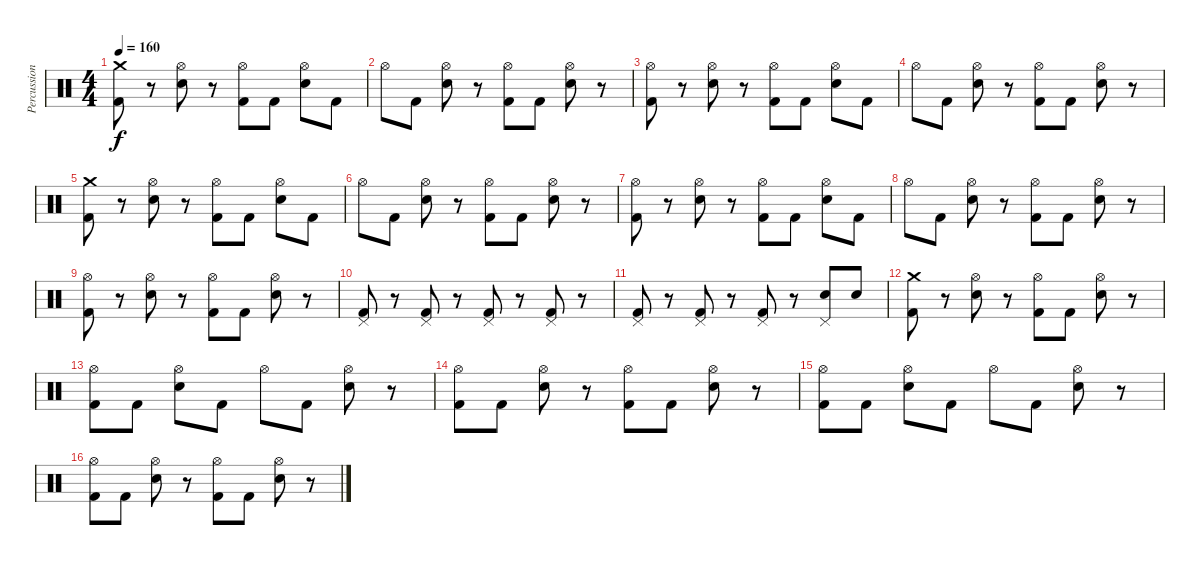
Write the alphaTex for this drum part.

\track ("Percussion" "Percussion") {instrument percussion}
\staff {score}
\articulation defaults
\ts (4 4)
\tempo 160
\clef neutral
\ks c
("Crash medium (hit)" "Kick (hit) 2").8{dy f} r.8 ("Hi-Hat (open)" "Snare (hit) 2").8 r.8 ("Hi-Hat (open)" "Kick (hit) 2").8 "Kick (hit) 2".8 ("Hi-Hat (open)" "Snare (hit) 2").8 "Kick (hit) 2".8 |
"Hi-Hat (open)".8 "Kick (hit) 2".8 ("Hi-Hat (open)" "Snare (hit) 2").8 r.8 ("Hi-Hat (open)" "Kick (hit) 2").8 "Kick (hit) 2".8 ("Hi-Hat (open)" "Snare (hit) 2").8 r.8 |
("Hi-Hat (open)" "Kick (hit) 2").8 r.8 ("Hi-Hat (open)" "Snare (hit) 2").8 r.8 ("Hi-Hat (open)" "Kick (hit) 2").8 "Kick (hit) 2".8 ("Hi-Hat (open)" "Snare (hit) 2").8 "Kick (hit) 2".8 |
"Hi-Hat (open)".8 "Kick (hit) 2".8 ("Hi-Hat (open)" "Snare (hit) 2").8 r.8 ("Hi-Hat (open)" "Kick (hit) 2").8 "Kick (hit) 2".8 ("Hi-Hat (open)" "Snare (hit) 2").8 r.8 |
("Crash medium (hit)" "Kick (hit) 2").8 r.8 ("Hi-Hat (open)" "Snare (hit) 2").8 r.8 ("Hi-Hat (open)" "Kick (hit) 2").8 "Kick (hit) 2".8 ("Hi-Hat (open)" "Snare (hit) 2").8 "Kick (hit) 2".8 |
"Hi-Hat (open)".8 "Kick (hit) 2".8 ("Hi-Hat (open)" "Snare (hit) 2").8 r.8 ("Hi-Hat (open)" "Kick (hit) 2").8 "Kick (hit) 2".8 ("Hi-Hat (open)" "Snare (hit) 2").8 r.8 |
("Hi-Hat (open)" "Kick (hit) 2").8 r.8 ("Hi-Hat (open)" "Snare (hit) 2").8 r.8 ("Hi-Hat (open)" "Kick (hit) 2").8 "Kick (hit) 2".8 ("Hi-Hat (open)" "Snare (hit) 2").8 "Kick (hit) 2".8 |
"Hi-Hat (open)".8 "Kick (hit) 2".8 ("Hi-Hat (open)" "Snare (hit) 2").8 r.8 ("Hi-Hat (open)" "Kick (hit) 2").8 "Kick (hit) 2".8 ("Hi-Hat (open)" "Snare (hit) 2").8 r.8 |
("Hi-Hat (open)" "Kick (hit) 2").8 r.8 ("Hi-Hat (open)" "Snare (hit) 2").8 r.8 ("Hi-Hat (open)" "Kick (hit) 2").8 "Kick (hit) 2".8 ("Hi-Hat (open)" "Snare (hit) 2").8 r.8 |
("Pedal Hi-Hat (hit)" "Kick (hit) 2").8 r.8 ("Pedal Hi-Hat (hit)" "Kick (hit) 2").8 r.8 ("Pedal Hi-Hat (hit)" "Kick (hit) 2").8 r.8 ("Pedal Hi-Hat (hit)" "Kick (hit) 2").8 r.8 |
("Pedal Hi-Hat (hit)" "Kick (hit) 2").8 r.8 ("Pedal Hi-Hat (hit)" "Kick (hit) 2").8 r.8 ("Pedal Hi-Hat (hit)" "Kick (hit) 2").8 r.8 ("Pedal Hi-Hat (hit)" "Snare (hit) 2").8 "Snare (hit) 2".8 |
("Crash medium (hit)" "Kick (hit) 2").8 r.8 ("Hi-Hat (open)" "Snare (hit) 2").8 r.8 ("Hi-Hat (open)" "Kick (hit) 2").8 "Kick (hit) 2".8 ("Hi-Hat (open)" "Snare (hit) 2").8 r.8 |
("Hi-Hat (open)" "Kick (hit) 2").8 "Kick (hit) 2".8 ("Hi-Hat (open)" "Snare (hit) 2").8 "Kick (hit) 2".8 "Hi-Hat (open)".8 "Kick (hit) 2".8 ("Hi-Hat (open)" "Snare (hit) 2").8 r.8 |
("Hi-Hat (open)" "Kick (hit) 2").8 "Kick (hit) 2".8 ("Hi-Hat (open)" "Snare (hit) 2").8 r.8 ("Hi-Hat (open)" "Kick (hit) 2").8 "Kick (hit) 2".8 ("Hi-Hat (open)" "Snare (hit) 2").8 r.8 |
("Hi-Hat (open)" "Kick (hit) 2").8 "Kick (hit) 2".8 ("Hi-Hat (open)" "Snare (hit) 2").8 "Kick (hit) 2".8 "Hi-Hat (open)".8 "Kick (hit) 2".8 ("Hi-Hat (open)" "Snare (hit) 2").8 r.8 |
("Hi-Hat (open)" "Kick (hit) 2").8 "Kick (hit) 2".8 ("Hi-Hat (open)" "Snare (hit) 2").8 r.8 ("Hi-Hat (open)" "Kick (hit) 2").8 "Kick (hit) 2".8 ("Hi-Hat (open)" "Snare (hit) 2").8 r.8
